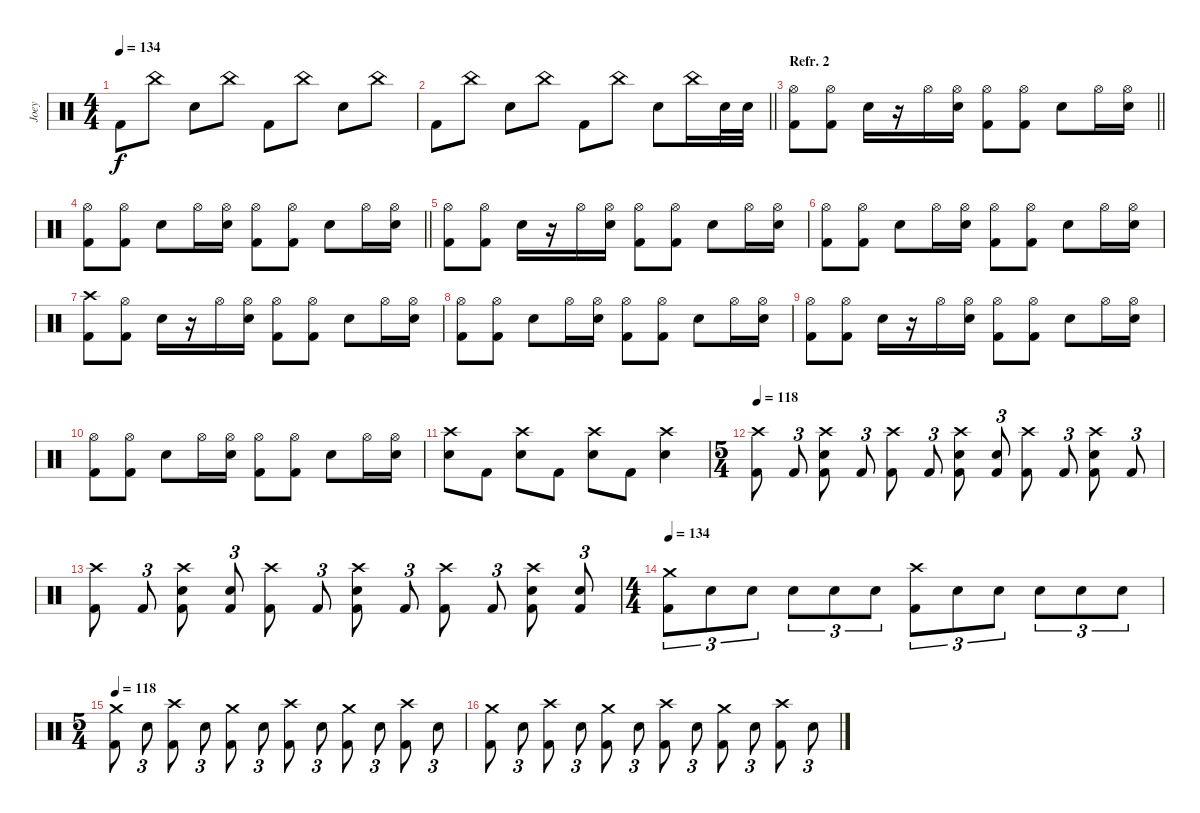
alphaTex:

\track ("Joey" "Joey") {instrument percussion}
\staff {score}
\articulation defaults
\ts (4 4)
\tempo 134
\clef neutral
\ks c "Kick (hit) 2".8{dy f} "China (hit)".8 "Electric Snare (hit)".8 "China (hit)".8 "Kick (hit) 2".8 "China (hit)".8 "Electric Snare (hit)".8 "China (hit)".8
|
\barLineRight lightlight "Kick (hit) 2".8 "China (hit)".8 "Electric Snare (hit)".8 "China (hit)".8 "Kick (hit) 2".8 "China (hit)".8 "Electric Snare (hit)".8 "China (hit)".16 "Electric Snare (hit)".32 "Electric Snare (hit)".32
|
\section ("" "Refr. 2")
\barLineRight lightlight
("Hi-Hat (open)" "Kick (hit) 2").8 ("Hi-Hat (open)" "Kick (hit) 2").8 "Electric Snare (hit)".16 r.16 "Hi-Hat (open)".16 ("Hi-Hat (open)" "Electric Snare (hit)").16 ("Hi-Hat (open)" "Kick (hit) 2").8 ("Hi-Hat (open)" "Kick (hit) 2").8 "Electric Snare (hit)".8 "Hi-Hat (open)".16 ("Hi-Hat (open)" "Electric Snare (hit)").16 |
\section ("" "")
\barLineRight lightlight
("Hi-Hat (open)" "Kick (hit) 2").8 ("Hi-Hat (open)" "Kick (hit) 2").8 "Electric Snare (hit)".8 "Hi-Hat (open)".16 ("Hi-Hat (open)" "Electric Snare (hit)").16 ("Hi-Hat (open)" "Kick (hit) 2").8 ("Hi-Hat (open)" "Kick (hit) 2").8 "Electric Snare (hit)".8 "Hi-Hat (open)".16 ("Hi-Hat (open)" "Electric Snare (hit)").16 |
\section ("" "")
("Hi-Hat (open)" "Kick (hit) 2").8 ("Hi-Hat (open)" "Kick (hit) 2").8 "Electric Snare (hit)".16 r.16 "Hi-Hat (open)".16 ("Hi-Hat (open)" "Electric Snare (hit)").16 ("Hi-Hat (open)" "Kick (hit) 2").8 ("Hi-Hat (open)" "Kick (hit) 2").8 "Electric Snare (hit)".8 "Hi-Hat (open)".16 ("Hi-Hat (open)" "Electric Snare (hit)").16 |
("Hi-Hat (open)" "Kick (hit) 2").8 ("Hi-Hat (open)" "Kick (hit) 2").8 "Electric Snare (hit)".8 "Hi-Hat (open)".16 ("Hi-Hat (open)" "Electric Snare (hit)").16 ("Hi-Hat (open)" "Kick (hit) 2").8 ("Hi-Hat (open)" "Kick (hit) 2").8 "Electric Snare (hit)".8 "Hi-Hat (open)".16 ("Hi-Hat (open)" "Electric Snare (hit)").16 |
("Crash high (hit)" "Kick (hit) 2").8 ("Hi-Hat (open)" "Kick (hit) 2").8 "Electric Snare (hit)".16 r.16 "Hi-Hat (open)".16 ("Hi-Hat (open)" "Electric Snare (hit)").16 ("Hi-Hat (open)" "Kick (hit) 2").8 ("Hi-Hat (open)" "Kick (hit) 2").8 "Electric Snare (hit)".8 "Hi-Hat (open)".16 ("Hi-Hat (open)" "Electric Snare (hit)").16 |
("Hi-Hat (open)" "Kick (hit) 2").8 ("Hi-Hat (open)" "Kick (hit) 2").8 "Electric Snare (hit)".8 "Hi-Hat (open)".16 ("Hi-Hat (open)" "Electric Snare (hit)").16 ("Hi-Hat (open)" "Kick (hit) 2").8 ("Hi-Hat (open)" "Kick (hit) 2").8 "Electric Snare (hit)".8 "Hi-Hat (open)".16 ("Hi-Hat (open)" "Electric Snare (hit)").16 |
("Hi-Hat (open)" "Kick (hit) 2").8 ("Hi-Hat (open)" "Kick (hit) 2").8 "Electric Snare (hit)".16 r.16 "Hi-Hat (open)".16 ("Hi-Hat (open)" "Electric Snare (hit)").16 ("Hi-Hat (open)" "Kick (hit) 2").8 ("Hi-Hat (open)" "Kick (hit) 2").8 "Electric Snare (hit)".8 "Hi-Hat (open)".16 ("Hi-Hat (open)" "Electric Snare (hit)").16 |
("Hi-Hat (open)" "Kick (hit) 2").8 ("Hi-Hat (open)" "Kick (hit) 2").8 "Electric Snare (hit)".8 "Hi-Hat (open)".16 ("Hi-Hat (open)" "Electric Snare (hit)").16 ("Hi-Hat (open)" "Kick (hit) 2").8 ("Hi-Hat (open)" "Kick (hit) 2").8 "Electric Snare (hit)".8 "Hi-Hat (open)".16 ("Hi-Hat (open)" "Electric Snare (hit)").16 |
("Crash high (hit)" "Electric Snare (hit)").8 "Kick (hit) 2".8 ("Crash high (hit)" "Electric Snare (hit)").8 "Kick (hit) 2".8 ("Crash high (hit)" "Electric Snare (hit)").8 "Kick (hit) 2".8 ("Crash high (hit)" "Electric Snare (hit)").4 |
\ts (5 4)
\tempo 118
("Crash high (hit)" "Kick (hit) 2").8 "Kick (hit) 2".8{tu (3 2)} ("Crash high (hit)" "Electric Snare (hit)" "Kick (hit) 2").8 "Kick (hit) 2".8{tu (3 2)} ("Crash high (hit)" "Kick (hit) 2").8 "Kick (hit) 2".8{tu (3 2)} ("Crash high (hit)" "Electric Snare (hit)" "Kick (hit) 2").8 ("Electric Snare (hit)" "Kick (hit) 2").8{tu (3 2)} ("Crash high (hit)" "Kick (hit) 2").8 "Kick (hit) 2".8{tu (3 2)} ("Crash high (hit)" "Electric Snare (hit)" "Kick (hit) 2").8 "Kick (hit) 2".8{tu (3 2)} |
("Crash high (hit)" "Kick (hit) 2").8 "Kick (hit) 2".8{tu (3 2)} ("Crash high (hit)" "Electric Snare (hit)" "Kick (hit) 2").8 ("Electric Snare (hit)" "Kick (hit) 2").8{tu (3 2)} ("Crash high (hit)" "Kick (hit) 2").8 "Kick (hit) 2".8{tu (3 2)} ("Crash high (hit)" "Electric Snare (hit)" "Kick (hit) 2").8 "Kick (hit) 2".8{tu (3 2)} ("Crash high (hit)" "Kick (hit) 2").8 "Kick (hit) 2".8{tu (3 2)} ("Crash high (hit)" "Electric Snare (hit)" "Kick (hit) 2").8 ("Electric Snare (hit)" "Kick (hit) 2").8{tu (3 2)} |
\ts (4 4)
\tempo 134
("Crash medium (hit)" "Kick (hit) 2").8{tu (3 2)} "Electric Snare (hit)".8{tu (3 2)} "Electric Snare (hit)".8{tu (3 2)} "Electric Snare (hit)".8{tu (3 2)} "Electric Snare (hit)".8{tu (3 2)} "Electric Snare (hit)".8{tu (3 2)} ("Crash high (hit)" "Kick (hit) 2").8{tu (3 2)} "Electric Snare (hit)".8{tu (3 2)} "Electric Snare (hit)".8{tu (3 2)} "Electric Snare (hit)".8{tu (3 2)} "Electric Snare (hit)".8{tu (3 2)} "Electric Snare (hit)".8{tu (3 2)} |
\ts (5 4)
\tempo 118
("Crash medium (hit)" "Kick (hit) 2").8 "Electric Snare (hit)".8{tu (3 2)} ("Crash high (hit)" "Kick (hit) 2").8 "Electric Snare (hit)".8{tu (3 2)} ("Crash medium (hit)" "Kick (hit) 2").8 "Electric Snare (hit)".8{tu (3 2)} ("Crash high (hit)" "Kick (hit) 2").8 "Electric Snare (hit)".8{tu (3 2)} ("Crash medium (hit)" "Kick (hit) 2").8 "Electric Snare (hit)".8{tu (3 2)} ("Crash high (hit)" "Kick (hit) 2").8 "Electric Snare (hit)".8{tu (3 2)} |
("Crash medium (hit)" "Kick (hit) 2").8 "Electric Snare (hit)".8{tu (3 2)} ("Crash high (hit)" "Kick (hit) 2").8 "Electric Snare (hit)".8{tu (3 2)} ("Crash medium (hit)" "Kick (hit) 2").8 "Electric Snare (hit)".8{tu (3 2)} ("Crash high (hit)" "Kick (hit) 2").8 "Electric Snare (hit)".8{tu (3 2)} ("Crash medium (hit)" "Kick (hit) 2").8 "Electric Snare (hit)".8{tu (3 2)} ("Crash high (hit)" "Kick (hit) 2").8 "Electric Snare (hit)".8{tu (3 2)}
